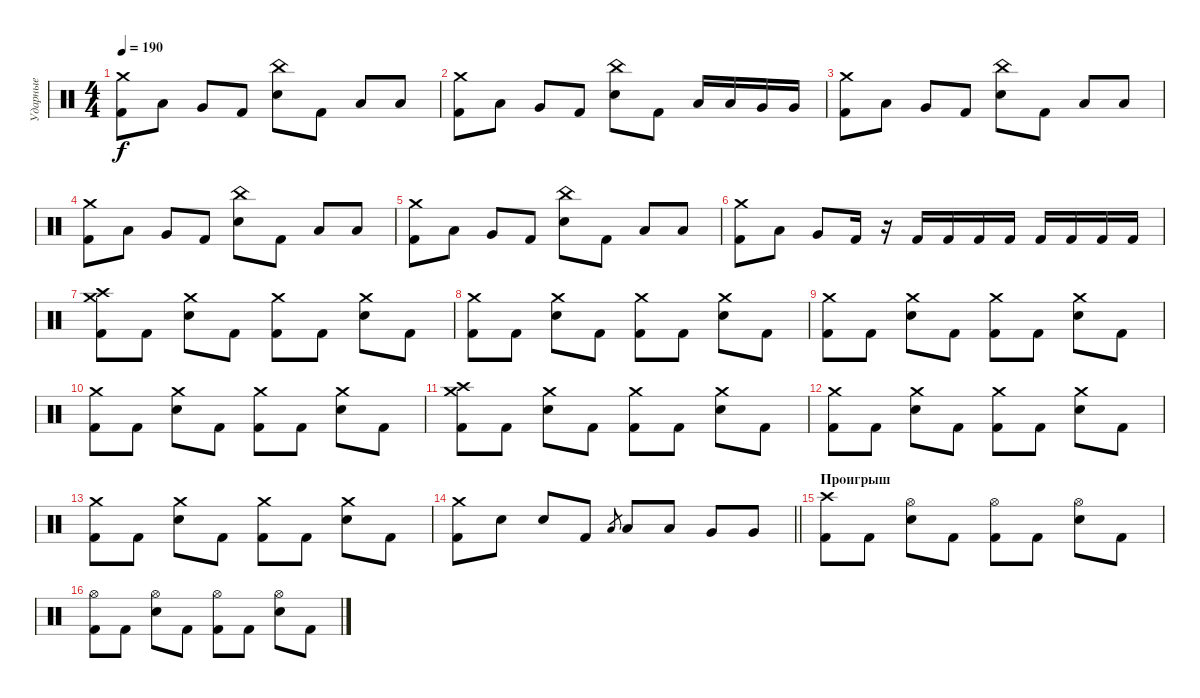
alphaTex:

\track ("Ударные" "Ударные") {instrument percussion}
\staff {score}
\articulation defaults
\ts (4 4)
\tempo 190
\clef neutral
\ks c
("Crash medium (hit)" "Kick (hit) 2").8{dy f} "Low Tom (hit)".8 "Very Low Tom (hit)".8 "Kick (hit) 2".8 ("China (hit)" "Electric Snare (hit)").8 "Kick (hit) 2".8 "Low Tom (hit)".8 "Low Tom (hit)".8 |
("Crash medium (hit)" "Kick (hit) 2").8 "Low Tom (hit)".8 "Very Low Tom (hit)".8 "Kick (hit) 2".8 ("China (hit)" "Electric Snare (hit)").8 "Kick (hit) 2".8 "Low Tom (hit)".16 "Low Tom (hit)".16 "Very Low Tom (hit)".16 "Very Low Tom (hit)".16 |
("Crash medium (hit)" "Kick (hit) 2").8 "Low Tom (hit)".8 "Very Low Tom (hit)".8 "Kick (hit) 2".8 ("China (hit)" "Electric Snare (hit)").8 "Kick (hit) 2".8 "Low Tom (hit)".8 "Low Tom (hit)".8 |
("Crash medium (hit)" "Kick (hit) 2").8 "Low Tom (hit)".8 "Very Low Tom (hit)".8 "Kick (hit) 2".8 ("China (hit)" "Electric Snare (hit)").8 "Kick (hit) 2".8 "Low Tom (hit)".8 "Low Tom (hit)".8 |
("Crash medium (hit)" "Kick (hit) 2").8 "Low Tom (hit)".8 "Very Low Tom (hit)".8 "Kick (hit) 2".8 ("China (hit)" "Electric Snare (hit)").8 "Kick (hit) 2".8 "Low Tom (hit)".8 "Low Tom (hit)".8 |
("Crash medium (hit)" "Kick (hit) 2").8 "Low Tom (hit)".8 "Very Low Tom (hit)".8 "Kick (hit) 2".16 r.16 "Kick (hit) 2".16 "Kick (hit) 2".16 "Kick (hit) 2".16 "Kick (hit) 2".16 "Kick (hit) 2".16 "Kick (hit) 2".16 "Kick (hit) 2".16 "Kick (hit) 2".16 |
("Crash high (hit)" "Crash medium (hit)" "Kick (hit) 2").8 "Kick (hit) 2".8 ("Crash medium (hit)" "Electric Snare (hit)").8 "Kick (hit) 2".8 ("Crash medium (hit)" "Kick (hit) 2").8 "Kick (hit) 2".8 ("Crash medium (hit)" "Electric Snare (hit)").8 "Kick (hit) 2".8 |
("Crash medium (hit)" "Kick (hit) 2").8 "Kick (hit) 2".8 ("Crash medium (hit)" "Electric Snare (hit)").8 "Kick (hit) 2".8 ("Crash medium (hit)" "Kick (hit) 2").8 "Kick (hit) 2".8 ("Crash medium (hit)" "Electric Snare (hit)").8 "Kick (hit) 2".8 |
("Crash medium (hit)" "Kick (hit) 2").8 "Kick (hit) 2".8 ("Crash medium (hit)" "Electric Snare (hit)").8 "Kick (hit) 2".8 ("Crash medium (hit)" "Kick (hit) 2").8 "Kick (hit) 2".8 ("Crash medium (hit)" "Electric Snare (hit)").8 "Kick (hit) 2".8 |
("Crash medium (hit)" "Kick (hit) 2").8 "Kick (hit) 2".8 ("Crash medium (hit)" "Electric Snare (hit)").8 "Kick (hit) 2".8 ("Crash medium (hit)" "Kick (hit) 2").8 "Kick (hit) 2".8 ("Crash medium (hit)" "Electric Snare (hit)").8 "Kick (hit) 2".8 |
("Crash medium (hit)" "Crash high (hit)" "Kick (hit) 2").8 "Kick (hit) 2".8 ("Crash medium (hit)" "Electric Snare (hit)").8 "Kick (hit) 2".8 ("Crash medium (hit)" "Kick (hit) 2").8 "Kick (hit) 2".8 ("Crash medium (hit)" "Electric Snare (hit)").8 "Kick (hit) 2".8 |
("Crash medium (hit)" "Kick (hit) 2").8 "Kick (hit) 2".8 ("Crash medium (hit)" "Electric Snare (hit)").8 "Kick (hit) 2".8 ("Crash medium (hit)" "Kick (hit) 2").8 "Kick (hit) 2".8 ("Crash medium (hit)" "Electric Snare (hit)").8 "Kick (hit) 2".8 |
("Crash medium (hit)" "Kick (hit) 2").8 "Kick (hit) 2".8 ("Crash medium (hit)" "Electric Snare (hit)").8 "Kick (hit) 2".8 ("Crash medium (hit)" "Kick (hit) 2").8 "Kick (hit) 2".8 ("Crash medium (hit)" "Electric Snare (hit)").8 "Kick (hit) 2".8 |
\barLineRight lightlight
("Crash medium (hit)" "Kick (hit) 2").8 "Snare (hit) 2".8 "Snare (hit) 2".8 "Kick (hit) 2".8 "Low Tom (hit)".8{gr} "Low Tom (hit)".8 "Low Tom (hit)".8 "Very Low Tom (hit)".8 "Very Low Tom (hit)".8 |
\section ("" "Проигрыш")
("Crash high (hit)" "Kick (hit) 2").8 "Kick (hit) 2".8 ("Hi-Hat (open)" "Electric Snare (hit)").8 "Kick (hit) 2".8 ("Hi-Hat (open)" "Kick (hit) 2").8 "Kick (hit) 2".8 ("Hi-Hat (open)" "Electric Snare (hit)").8 "Kick (hit) 2".8 |
("Hi-Hat (open)" "Kick (hit) 2").8 "Kick (hit) 2".8 ("Hi-Hat (open)" "Electric Snare (hit)").8 "Kick (hit) 2".8 ("Hi-Hat (open)" "Kick (hit) 2").8 "Kick (hit) 2".8 ("Hi-Hat (open)" "Electric Snare (hit)").8 "Kick (hit) 2".8
